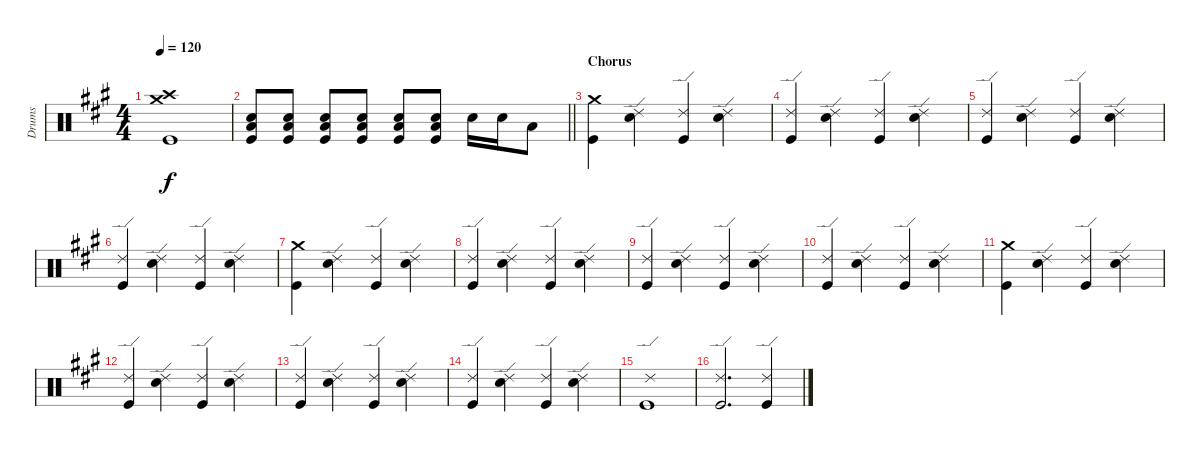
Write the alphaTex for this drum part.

\track ("Drums" "Drums") {instrument percussion}
\staff {score}
\articulation defaults
\ts (4 4)
\tempo 120
\clef neutral
\ks f#minor
("Crash high (hit)" "Crash medium (hit)" "Kick (hit)").1{dy f} |
\barLineRight lightlight
("Electric Snare (hit)" "Low Tom (hit)" "Kick (hit)").8 ("Electric Snare (hit)" "Low Tom (hit)" "Kick (hit)").8 ("Electric Snare (hit)" "Low Tom (hit)" "Kick (hit)").8 ("Electric Snare (hit)" "Low Tom (hit)" "Kick (hit)").8 ("Electric Snare (hit)" "Low Tom (hit)" "Kick (hit)").8 ("Electric Snare (hit)" "Low Tom (hit)" "Kick (hit)").8 "Electric Snare (hit)".16 "Electric Snare (hit)".16 "Low Tom (hit)".8 |
\section ("" "Chorus")
("Crash medium (hit)" "Kick (hit)").4 ("Ride (edge) 2" "Electric Snare (hit)").4 ("Ride (edge) 2" "Kick (hit)").4 ("Ride (edge) 2" "Electric Snare (hit)").4 |
("Ride (edge) 2" "Kick (hit)").4 ("Ride (edge) 2" "Electric Snare (hit)").4 ("Ride (edge) 2" "Kick (hit)").4 ("Ride (edge) 2" "Electric Snare (hit)").4 |
("Ride (edge) 2" "Kick (hit)").4 ("Ride (edge) 2" "Electric Snare (hit)").4 ("Ride (edge) 2" "Kick (hit)").4 ("Ride (edge) 2" "Electric Snare (hit)").4 |
("Ride (edge) 2" "Kick (hit)").4 ("Ride (edge) 2" "Electric Snare (hit)").4 ("Ride (edge) 2" "Kick (hit)").4 ("Ride (edge) 2" "Electric Snare (hit)").4 |
("Crash medium (hit)" "Kick (hit)").4 ("Ride (edge) 2" "Electric Snare (hit)").4 ("Ride (edge) 2" "Kick (hit)").4 ("Ride (edge) 2" "Electric Snare (hit)").4 |
("Ride (edge) 2" "Kick (hit)").4 ("Ride (edge) 2" "Electric Snare (hit)").4 ("Ride (edge) 2" "Kick (hit)").4 ("Ride (edge) 2" "Electric Snare (hit)").4 |
("Ride (edge) 2" "Kick (hit)").4 ("Ride (edge) 2" "Electric Snare (hit)").4 ("Ride (edge) 2" "Kick (hit)").4 ("Ride (edge) 2" "Electric Snare (hit)").4 |
("Ride (edge) 2" "Kick (hit)").4 ("Ride (edge) 2" "Electric Snare (hit)").4 ("Ride (edge) 2" "Kick (hit)").4 ("Ride (edge) 2" "Electric Snare (hit)").4 |
("Crash medium (hit)" "Kick (hit)").4 ("Ride (edge) 2" "Electric Snare (hit)").4 ("Ride (edge) 2" "Kick (hit)").4 ("Ride (edge) 2" "Electric Snare (hit)").4 |
("Ride (edge) 2" "Kick (hit)").4 ("Ride (edge) 2" "Electric Snare (hit)").4 ("Ride (edge) 2" "Kick (hit)").4 ("Ride (edge) 2" "Electric Snare (hit)").4 |
("Ride (edge) 2" "Kick (hit)").4 ("Ride (edge) 2" "Electric Snare (hit)").4 ("Ride (edge) 2" "Kick (hit)").4 ("Ride (edge) 2" "Electric Snare (hit)").4 |
("Ride (edge) 2" "Kick (hit)").4 ("Ride (edge) 2" "Electric Snare (hit)").4 ("Ride (edge) 2" "Kick (hit)").4 ("Ride (edge) 2" "Electric Snare (hit)").4 |
("Ride (edge) 2" "Kick (hit)").1 |
("Ride (edge) 2" "Kick (hit)").2{d} ("Ride (edge) 2" "Kick (hit)").4
